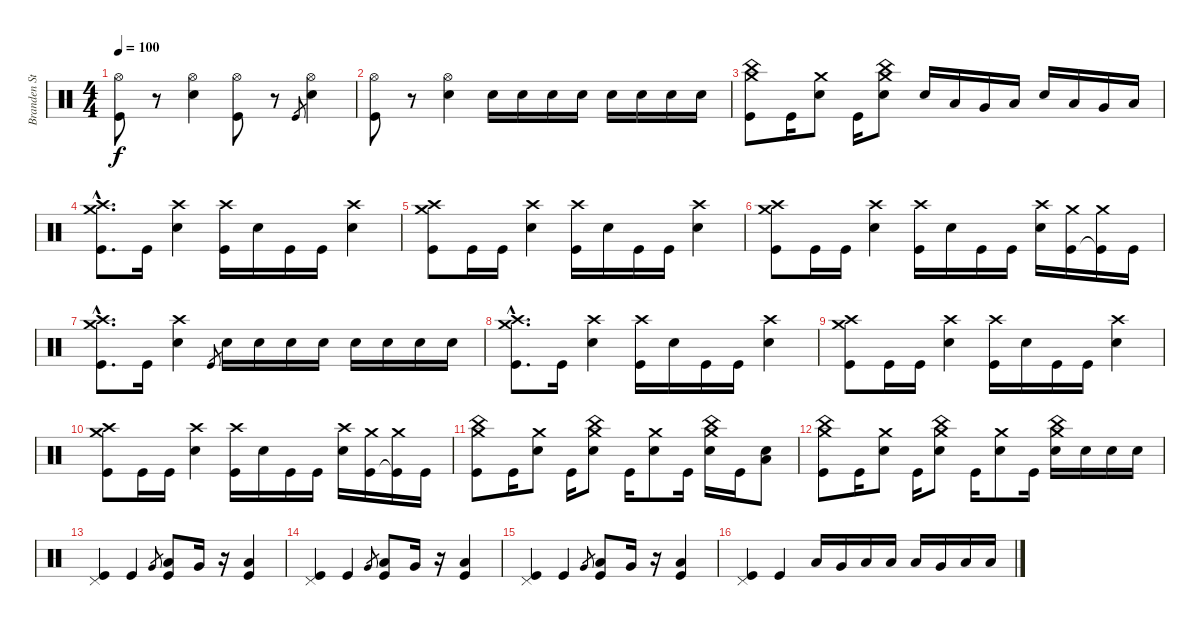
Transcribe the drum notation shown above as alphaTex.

\track ("Branden Steineckert-drums" "Branden St") {instrument percussion}
\staff {score}
\articulation defaults
\ts (4 4)
\tempo 100
\clef neutral
\ks c
("Hi-Hat (open)" "Kick (hit)").8{dy f} r.8 ("Hi-Hat (open)" "Snare (hit) 2").4 ("Hi-Hat (open)" "Kick (hit)").8 r.8 "Kick (hit)".8{gr} ("Hi-Hat (open)" "Snare (hit) 2").4 |
("Hi-Hat (open)" "Kick (hit)").8 r.8 ("Hi-Hat (open)" "Snare (hit) 2").4 "Snare (hit) 2".16 "Snare (hit) 2".16 "Snare (hit) 2".16 "Snare (hit) 2".16 "Snare (hit) 2".16 "Snare (hit) 2".16 "Snare (hit) 2".16 "Snare (hit) 2".16 |
("China (hit)" "Crash medium (hit)" "Kick (hit)").8 "Kick (hit)".16 ("Crash medium (hit)" "Snare (hit) 2").8 "Kick (hit)".16 ("China (hit)" "Crash medium (hit)" "Snare (hit) 2").8 "Snare (hit) 2".16 "Low Tom (hit)".16 "Very Low Tom (hit)".16 "Low Floor Tom (hit)".16 "Snare (hit) 2".16 "Low Tom (hit)".16 "Very Low Tom (hit)".16 "Low Floor Tom (hit)".16 |
("Crash medium (hit)"{hac} "Crash high (hit)"{hac} "Kick (hit)"{hac}).8{d} "Kick (hit)".16 ("Crash high (hit)" "Snare (hit) 2").4 ("Crash high (hit)" "Kick (hit)").16 "Snare (hit) 2".16 "Kick (hit)".16 "Kick (hit)".16 ("Crash high (hit)" "Snare (hit) 2").4 |
("Crash medium (hit)" "Crash high (hit)" "Kick (hit)").8 "Kick (hit)".16 "Kick (hit)".16 ("Crash high (hit)" "Snare (hit) 2").4 ("Crash high (hit)" "Kick (hit)").16 "Snare (hit) 2".16 "Kick (hit)".16 "Kick (hit)".16 ("Crash high (hit)" "Snare (hit) 2").4 |
("Crash medium (hit)" "Crash high (hit)" "Kick (hit)").8 "Kick (hit)".16 "Kick (hit)".16 ("Crash high (hit)" "Snare (hit) 2").4 ("Crash high (hit)" "Kick (hit)").16 "Snare (hit) 2".16 "Kick (hit)".16 "Kick (hit)".16 ("Crash high (hit)" "Snare (hit) 2").16 ("Crash medium (hit)" "Kick (hit)").16 ("Crash medium (hit)" "Kick (hit)"{t}).16 "Kick (hit)".16 |
("Crash medium (hit)"{hac} "Crash high (hit)"{hac} "Kick (hit)"{hac}).8{d} "Kick (hit)".16 ("Crash high (hit)" "Snare (hit) 2").4 "Kick (hit)".8{gr} "Snare (hit) 2".16 "Snare (hit) 2".16 "Snare (hit) 2".16 "Snare (hit) 2".16 "Snare (hit) 2".16 "Snare (hit) 2".16 "Snare (hit) 2".16 "Snare (hit) 2".16 |
("Crash medium (hit)"{hac} "Crash high (hit)"{hac} "Kick (hit)"{hac}).8{d} "Kick (hit)".16 ("Crash high (hit)" "Snare (hit) 2").4 ("Crash high (hit)" "Kick (hit)").16 "Snare (hit) 2".16 "Kick (hit)".16 "Kick (hit)".16 ("Crash high (hit)" "Snare (hit) 2").4 |
("Crash medium (hit)" "Crash high (hit)" "Kick (hit)").8 "Kick (hit)".16 "Kick (hit)".16 ("Crash high (hit)" "Snare (hit) 2").4 ("Crash high (hit)" "Kick (hit)").16 "Snare (hit) 2".16 "Kick (hit)".16 "Kick (hit)".16 ("Crash high (hit)" "Snare (hit) 2").4 |
("Crash medium (hit)" "Crash high (hit)" "Kick (hit)").8 "Kick (hit)".16 "Kick (hit)".16 ("Crash high (hit)" "Snare (hit) 2").4 ("Crash high (hit)" "Kick (hit)").16 "Snare (hit) 2".16 "Kick (hit)".16 "Kick (hit)".16 ("Crash high (hit)" "Snare (hit) 2").16 ("Crash medium (hit)" "Kick (hit)").16 ("Crash medium (hit)" "Kick (hit)"{t}).16 "Kick (hit)".16 |
("China (hit)" "Crash medium (hit)" "Kick (hit)").8 "Kick (hit)".16 ("Crash medium (hit)" "Snare (hit) 2").8 "Kick (hit)".16 ("China (hit)" "Crash medium (hit)" "Snare (hit) 2").8 "Kick (hit)".16 ("Crash medium (hit)" "Snare (hit) 2").8 "Kick (hit)".16 ("China (hit)" "Crash medium (hit)" "Snare (hit) 2").16 "Kick (hit)".16 ("Low Tom (hit)" "Snare (hit) 2").8 |
("China (hit)" "Crash medium (hit)" "Kick (hit)").8 "Kick (hit)".16 ("Crash medium (hit)" "Snare (hit) 2").8 "Kick (hit)".16 ("China (hit)" "Crash medium (hit)" "Snare (hit) 2").8 "Kick (hit)".16 ("Crash medium (hit)" "Snare (hit) 2").8 "Kick (hit)".16 ("China (hit)" "Crash medium (hit)" "Snare (hit) 2").16 "Snare (hit) 2".16 "Snare (hit) 2".16 "Snare (hit) 2".16 |
("Pedal Hi-Hat (hit)" "Kick (hit)").4 "Kick (hit)".4 "Very Low Tom (hit)".8{gr} ("Low Tom (hit)" "Kick (hit)").8 "Very Low Tom (hit)".16 r.16 ("Low Floor Tom (hit)" "Kick (hit)").4 |
("Pedal Hi-Hat (hit)" "Kick (hit)").4 "Kick (hit)".4 "Very Low Tom (hit)".8{gr} ("Low Tom (hit)" "Kick (hit)").8 "Very Low Tom (hit)".16 r.16 ("Low Floor Tom (hit)" "Kick (hit)").4 |
("Pedal Hi-Hat (hit)" "Kick (hit)").4 "Kick (hit)".4 "Very Low Tom (hit)".8{gr} ("Low Tom (hit)" "Kick (hit)").8 "Very Low Tom (hit)".16 r.16 ("Low Floor Tom (hit)" "Kick (hit)").4 |
("Pedal Hi-Hat (hit)" "Kick (hit)").4 "Kick (hit)".4 "Low Tom (hit)".16 "Very Low Tom (hit)".16 "Low Floor Tom (hit)".16 "Low Floor Tom (hit)".16 "Low Tom (hit)".16 "Very Low Tom (hit)".16 "Low Floor Tom (hit)".16 "Low Floor Tom (hit)".16
